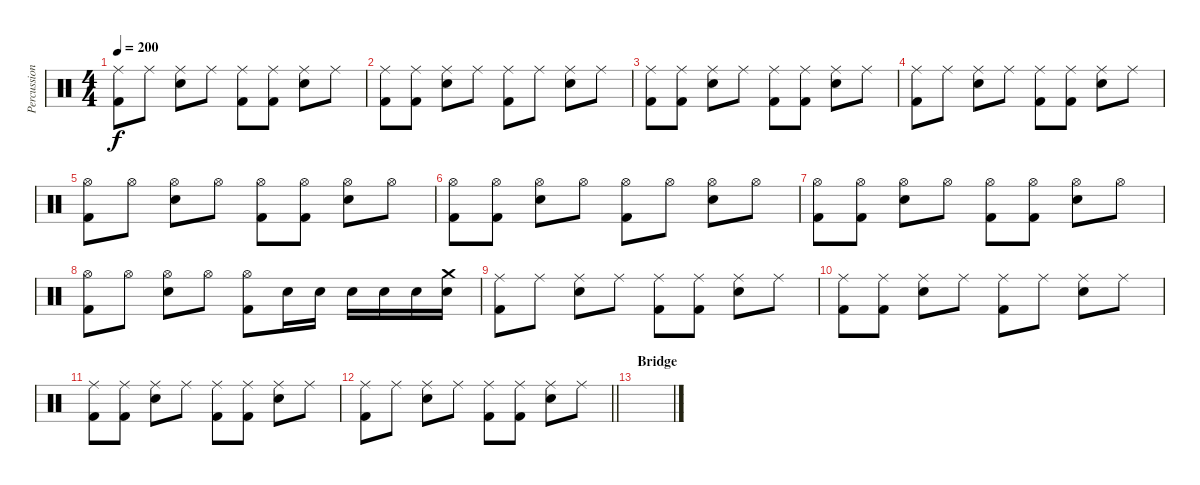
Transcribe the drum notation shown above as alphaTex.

\track ("Percussion" "Percussion") {instrument percussion}
\staff {score}
\articulation defaults
\ts (4 4)
\tempo 200
\clef neutral
\ks c
("Ride (middle)" "Kick (hit) 2").8{dy f} "Ride (middle)".8 ("Ride (middle)" "Snare (hit) 2").8 "Ride (middle)".8 ("Ride (middle)" "Kick (hit) 2").8 ("Ride (middle)" "Kick (hit) 2").8 ("Ride (middle)" "Snare (hit) 2").8 "Ride (middle)".8 |
("Ride (middle)" "Kick (hit) 2").8 ("Ride (middle)" "Kick (hit) 2").8 ("Ride (middle)" "Snare (hit) 2").8 "Ride (middle)".8 ("Ride (middle)" "Kick (hit) 2").8 "Ride (middle)".8 ("Ride (middle)" "Snare (hit) 2").8 "Ride (middle)".8 |
("Ride (middle)" "Kick (hit) 2").8 ("Ride (middle)" "Kick (hit) 2").8 ("Ride (middle)" "Snare (hit) 2").8 "Ride (middle)".8 ("Ride (middle)" "Kick (hit) 2").8 ("Ride (middle)" "Kick (hit) 2").8 ("Ride (middle)" "Snare (hit) 2").8 "Ride (middle)".8 |
("Ride (middle)" "Kick (hit) 2").8 "Ride (middle)".8 ("Ride (middle)" "Snare (hit) 2").8 "Ride (middle)".8 ("Ride (middle)" "Kick (hit) 2").8 ("Ride (middle)" "Kick (hit) 2").8 ("Ride (middle)" "Snare (hit) 2").8 "Ride (middle)".8 |
("Hi-Hat (open)" "Kick (hit) 2").8 "Hi-Hat (open)".8 ("Hi-Hat (open)" "Snare (hit) 2").8 "Hi-Hat (open)".8 ("Hi-Hat (open)" "Kick (hit) 2").8 ("Hi-Hat (open)" "Kick (hit) 2").8 ("Hi-Hat (open)" "Snare (hit) 2").8 "Hi-Hat (open)".8 |
("Hi-Hat (open)" "Kick (hit) 2").8 ("Hi-Hat (open)" "Kick (hit) 2").8 ("Hi-Hat (open)" "Snare (hit) 2").8 "Hi-Hat (open)".8 ("Hi-Hat (open)" "Kick (hit) 2").8 "Hi-Hat (open)".8 ("Hi-Hat (open)" "Snare (hit) 2").8 "Hi-Hat (open)".8 |
("Hi-Hat (open)" "Kick (hit) 2").8 ("Hi-Hat (open)" "Kick (hit) 2").8 ("Hi-Hat (open)" "Snare (hit) 2").8 "Hi-Hat (open)".8 ("Hi-Hat (open)" "Kick (hit) 2").8 ("Hi-Hat (open)" "Kick (hit) 2").8 ("Hi-Hat (open)" "Snare (hit) 2").8 "Hi-Hat (open)".8 |
("Hi-Hat (open)" "Kick (hit) 2").8 "Hi-Hat (open)".8 ("Hi-Hat (open)" "Snare (hit) 2").8 "Hi-Hat (open)".8 ("Hi-Hat (open)" "Kick (hit) 2").8 "Snare (hit) 2".16 "Snare (hit) 2".16 "Snare (hit) 2".16 "Snare (hit) 2".16 "Snare (hit) 2".16 ("Crash medium (hit)" "Snare (hit) 2").16 |
("Ride (middle)" "Kick (hit) 2").8 "Ride (middle)".8 ("Ride (middle)" "Snare (hit) 2").8 "Ride (middle)".8 ("Ride (middle)" "Kick (hit) 2").8 ("Ride (middle)" "Kick (hit) 2").8 ("Ride (middle)" "Snare (hit) 2").8 "Ride (middle)".8 |
("Ride (middle)" "Kick (hit) 2").8 ("Ride (middle)" "Kick (hit) 2").8 ("Ride (middle)" "Snare (hit) 2").8 "Ride (middle)".8 ("Ride (middle)" "Kick (hit) 2").8 "Ride (middle)".8 ("Ride (middle)" "Snare (hit) 2").8 "Ride (middle)".8 |
("Ride (middle)" "Kick (hit) 2").8 ("Ride (middle)" "Kick (hit) 2").8 ("Ride (middle)" "Snare (hit) 2").8 "Ride (middle)".8 ("Ride (middle)" "Kick (hit) 2").8 ("Ride (middle)" "Kick (hit) 2").8 ("Ride (middle)" "Snare (hit) 2").8 "Ride (middle)".8 |
\barLineRight lightlight
("Ride (middle)" "Kick (hit) 2").8 "Ride (middle)".8 ("Ride (middle)" "Snare (hit) 2").8 "Ride (middle)".8 ("Ride (middle)" "Kick (hit) 2").8 ("Ride (middle)" "Kick (hit) 2").8 ("Ride (middle)" "Snare (hit) 2").8 "Ride (middle)".8 |
\section ("" "Bridge")
